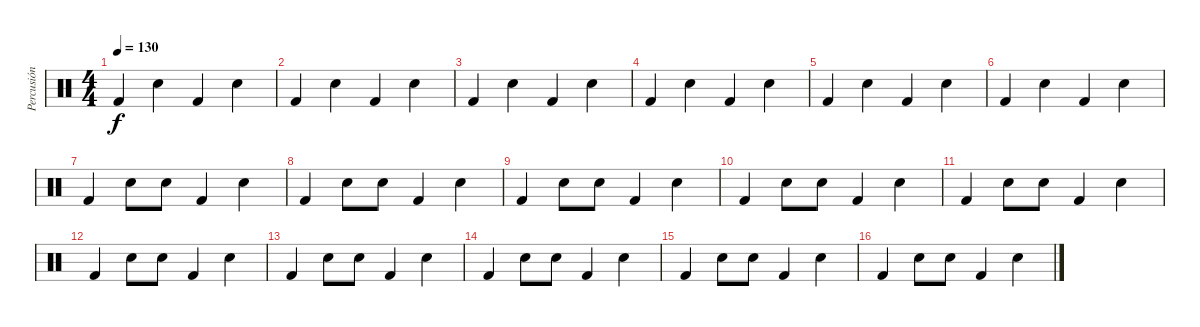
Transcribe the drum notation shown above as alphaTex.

\track ("Percusión" "Percusión") {instrument percussion}
\staff {score}
\articulation defaults
\ts (4 4)
\tempo 130
\clef neutral
\ks c "Kick (hit) 2".4{dy f} "Snare (hit) 2".4 "Kick (hit) 2".4 "Snare (hit) 2".4
|
"Kick (hit) 2".4 "Snare (hit) 2".4 "Kick (hit) 2".4 "Snare (hit) 2".4 |
"Kick (hit) 2".4 "Snare (hit) 2".4 "Kick (hit) 2".4 "Snare (hit) 2".4 |
"Kick (hit) 2".4 "Snare (hit) 2".4 "Kick (hit) 2".4 "Snare (hit) 2".4 |
"Kick (hit) 2".4 "Snare (hit) 2".4 "Kick (hit) 2".4 "Snare (hit) 2".4 |
"Kick (hit) 2".4 "Snare (hit) 2".4 "Kick (hit) 2".4 "Snare (hit) 2".4 |
"Kick (hit) 2".4 "Snare (hit) 2".8 "Electric Snare (hit)".8 "Kick (hit) 2".4 "Snare (hit) 2".4 |
"Kick (hit) 2".4 "Snare (hit) 2".8 "Electric Snare (hit)".8 "Kick (hit) 2".4 "Snare (hit) 2".4 |
"Kick (hit) 2".4 "Snare (hit) 2".8 "Electric Snare (hit)".8 "Kick (hit) 2".4 "Snare (hit) 2".4 |
"Kick (hit) 2".4 "Snare (hit) 2".8 "Electric Snare (hit)".8 "Kick (hit) 2".4 "Snare (hit) 2".4 |
"Kick (hit) 2".4 "Snare (hit) 2".8 "Electric Snare (hit)".8 "Kick (hit) 2".4 "Snare (hit) 2".4 |
"Kick (hit) 2".4 "Snare (hit) 2".8 "Electric Snare (hit)".8 "Kick (hit) 2".4 "Snare (hit) 2".4 |
"Kick (hit) 2".4 "Snare (hit) 2".8 "Electric Snare (hit)".8 "Kick (hit) 2".4 "Snare (hit) 2".4 |
"Kick (hit) 2".4 "Snare (hit) 2".8 "Electric Snare (hit)".8 "Kick (hit) 2".4 "Snare (hit) 2".4 |
"Kick (hit) 2".4 "Snare (hit) 2".8 "Electric Snare (hit)".8 "Kick (hit) 2".4 "Snare (hit) 2".4 |
"Kick (hit) 2".4 "Snare (hit) 2".8 "Electric Snare (hit)".8 "Kick (hit) 2".4 "Snare (hit) 2".4
